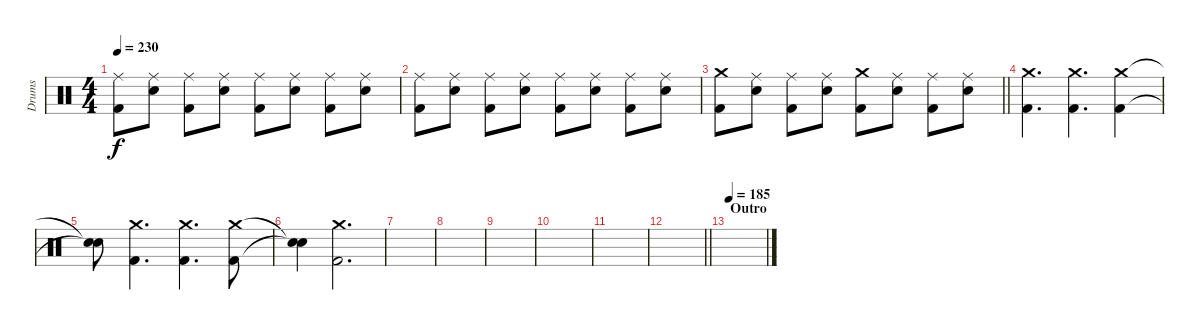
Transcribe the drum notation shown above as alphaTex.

\track ("Drums" "Drums") {instrument percussion}
\staff {score}
\articulation defaults
\ts (4 4)
\tempo 230
\clef neutral
\ks c
("Ride (middle)" "Kick (hit) 2").8{dy f} ("Ride (middle)" "Electric Snare (hit)").8 ("Ride (middle)" "Kick (hit) 2").8 ("Ride (middle)" "Electric Snare (hit)").8 ("Ride (middle)" "Kick (hit) 2").8 ("Ride (middle)" "Electric Snare (hit)").8 ("Ride (middle)" "Kick (hit) 2").8 ("Ride (middle)" "Electric Snare (hit)").8 |
("Ride (middle)" "Kick (hit) 2").8 ("Ride (middle)" "Electric Snare (hit)").8 ("Ride (middle)" "Kick (hit) 2").8 ("Ride (middle)" "Electric Snare (hit)").8 ("Ride (middle)" "Kick (hit) 2").8 ("Ride (middle)" "Electric Snare (hit)").8 ("Ride (middle)" "Kick (hit) 2").8 ("Ride (middle)" "Electric Snare (hit)").8 |
\barLineRight lightlight
("Crash medium (hit)" "Kick (hit) 2").8 ("Ride (middle)" "Electric Snare (hit)").8 ("Ride (middle)" "Kick (hit) 2").8 ("Ride (middle)" "Electric Snare (hit)").8 ("Crash medium (hit)" "Kick (hit) 2").8 ("Ride (middle)" "Electric Snare (hit)").8 ("Ride (middle)" "Kick (hit) 2").8 ("Ride (middle)" "Electric Snare (hit)").8 |
("Crash medium (hit)" "Kick (hit) 2").4{d} ("Crash medium (hit)" "Kick (hit) 2").4{d} ("Crash medium (hit)" "Kick (hit) 2").4 |
("Snare (hit)"{t} "Snare (hit)"{t}).8 ("Crash medium (hit)" "Kick (hit) 2").4{d} ("Crash medium (hit)" "Kick (hit) 2").4{d} ("Crash medium (hit)" "Kick (hit) 2").8 |
("Snare (hit)"{t} "Snare (hit)"{t}).4 ("Crash medium (hit)" "Kick (hit) 2").2{d} |
|
|
|
|
|
\barLineRight lightlight
|
\section ("" "Outro")
\tempo 185
